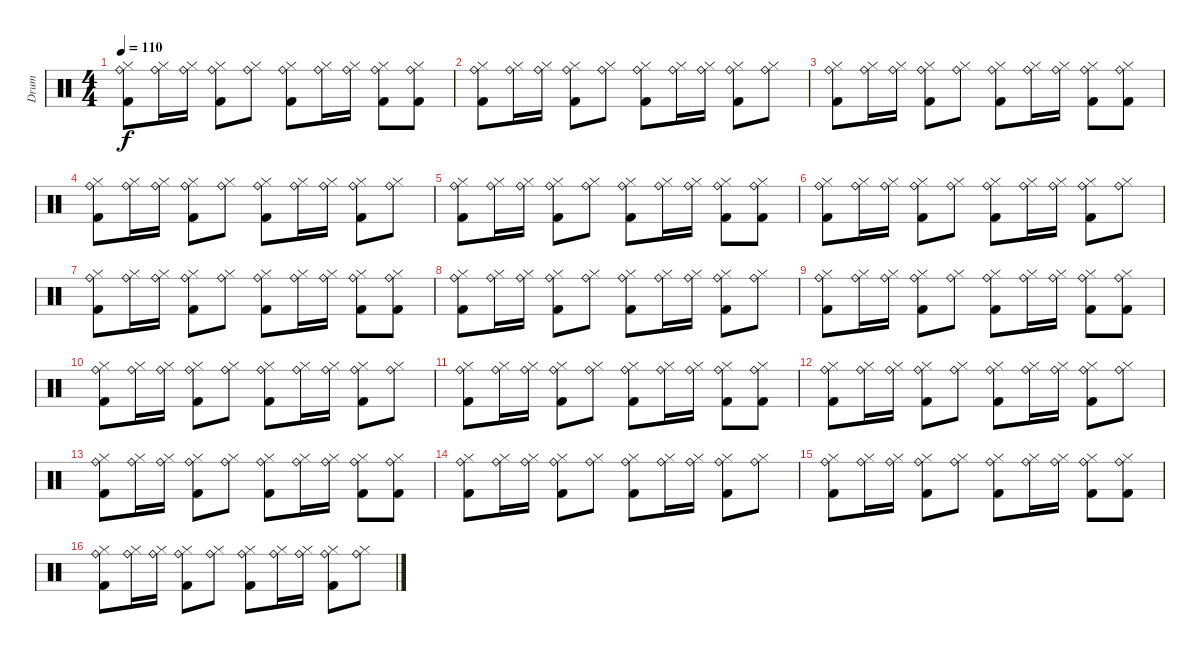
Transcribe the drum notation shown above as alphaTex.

\track ("Drum" "Drum") {instrument percussion}
\staff {score}
\articulation defaults
\ts (4 4)
\tempo 110
\clef neutral
\ks c
("Ride (bell)" "Hi-Hat (closed)" "Kick (hit) 2").8{dy f} ("Ride (bell)" "Hi-Hat (closed)").16 ("Ride (bell)" "Hi-Hat (closed)").16 ("Ride (bell)" "Hi-Hat (closed)" "Kick (hit) 2").8 ("Ride (bell)" "Hi-Hat (closed)").8 ("Ride (bell)" "Hi-Hat (closed)" "Kick (hit) 2").8 ("Ride (bell)" "Hi-Hat (closed)").16 ("Ride (bell)" "Hi-Hat (closed)").16 ("Ride (bell)" "Hi-Hat (closed)" "Kick (hit) 2").8 ("Ride (bell)" "Hi-Hat (closed)" "Kick (hit) 2").8 |
("Ride (bell)" "Hi-Hat (closed)" "Kick (hit) 2").8 ("Ride (bell)" "Hi-Hat (closed)").16 ("Ride (bell)" "Hi-Hat (closed)").16 ("Ride (bell)" "Hi-Hat (closed)" "Kick (hit) 2").8 ("Ride (bell)" "Hi-Hat (closed)").8 ("Ride (bell)" "Hi-Hat (closed)" "Kick (hit) 2").8 ("Ride (bell)" "Hi-Hat (closed)").16 ("Ride (bell)" "Hi-Hat (closed)").16 ("Ride (bell)" "Hi-Hat (closed)" "Kick (hit) 2").8 ("Ride (bell)" "Hi-Hat (closed)").8 |
("Ride (bell)" "Hi-Hat (closed)" "Kick (hit) 2").8 ("Ride (bell)" "Hi-Hat (closed)").16 ("Ride (bell)" "Hi-Hat (closed)").16 ("Ride (bell)" "Hi-Hat (closed)" "Kick (hit) 2").8 ("Ride (bell)" "Hi-Hat (closed)").8 ("Ride (bell)" "Hi-Hat (closed)" "Kick (hit) 2").8 ("Ride (bell)" "Hi-Hat (closed)").16 ("Ride (bell)" "Hi-Hat (closed)").16 ("Ride (bell)" "Hi-Hat (closed)" "Kick (hit) 2").8 ("Ride (bell)" "Hi-Hat (closed)" "Kick (hit) 2").8 |
("Ride (bell)" "Hi-Hat (closed)" "Kick (hit) 2").8 ("Ride (bell)" "Hi-Hat (closed)").16 ("Ride (bell)" "Hi-Hat (closed)").16 ("Ride (bell)" "Hi-Hat (closed)" "Kick (hit) 2").8 ("Ride (bell)" "Hi-Hat (closed)").8 ("Ride (bell)" "Hi-Hat (closed)" "Kick (hit) 2").8 ("Ride (bell)" "Hi-Hat (closed)").16 ("Ride (bell)" "Hi-Hat (closed)").16 ("Ride (bell)" "Hi-Hat (closed)" "Kick (hit) 2").8 ("Ride (bell)" "Hi-Hat (closed)").8 |
("Ride (bell)" "Hi-Hat (closed)" "Kick (hit) 2").8 ("Ride (bell)" "Hi-Hat (closed)").16 ("Ride (bell)" "Hi-Hat (closed)").16 ("Ride (bell)" "Hi-Hat (closed)" "Kick (hit) 2").8 ("Ride (bell)" "Hi-Hat (closed)").8 ("Ride (bell)" "Hi-Hat (closed)" "Kick (hit) 2").8 ("Ride (bell)" "Hi-Hat (closed)").16 ("Ride (bell)" "Hi-Hat (closed)").16 ("Ride (bell)" "Hi-Hat (closed)" "Kick (hit) 2").8 ("Ride (bell)" "Hi-Hat (closed)" "Kick (hit) 2").8 |
("Ride (bell)" "Hi-Hat (closed)" "Kick (hit) 2").8 ("Ride (bell)" "Hi-Hat (closed)").16 ("Ride (bell)" "Hi-Hat (closed)").16 ("Ride (bell)" "Hi-Hat (closed)" "Kick (hit) 2").8 ("Ride (bell)" "Hi-Hat (closed)").8 ("Ride (bell)" "Hi-Hat (closed)" "Kick (hit) 2").8 ("Ride (bell)" "Hi-Hat (closed)").16 ("Ride (bell)" "Hi-Hat (closed)").16 ("Ride (bell)" "Hi-Hat (closed)" "Kick (hit) 2").8 ("Ride (bell)" "Hi-Hat (closed)").8 |
("Ride (bell)" "Hi-Hat (closed)" "Kick (hit) 2").8 ("Ride (bell)" "Hi-Hat (closed)").16 ("Ride (bell)" "Hi-Hat (closed)").16 ("Ride (bell)" "Hi-Hat (closed)" "Kick (hit) 2").8 ("Ride (bell)" "Hi-Hat (closed)").8 ("Ride (bell)" "Hi-Hat (closed)" "Kick (hit) 2").8 ("Ride (bell)" "Hi-Hat (closed)").16 ("Ride (bell)" "Hi-Hat (closed)").16 ("Ride (bell)" "Hi-Hat (closed)" "Kick (hit) 2").8 ("Ride (bell)" "Hi-Hat (closed)" "Kick (hit) 2").8 |
("Ride (bell)" "Hi-Hat (closed)" "Kick (hit) 2").8 ("Ride (bell)" "Hi-Hat (closed)").16 ("Ride (bell)" "Hi-Hat (closed)").16 ("Ride (bell)" "Hi-Hat (closed)" "Kick (hit) 2").8 ("Ride (bell)" "Hi-Hat (closed)").8 ("Ride (bell)" "Hi-Hat (closed)" "Kick (hit) 2").8 ("Ride (bell)" "Hi-Hat (closed)").16 ("Ride (bell)" "Hi-Hat (closed)").16 ("Ride (bell)" "Hi-Hat (closed)" "Kick (hit) 2").8 ("Ride (bell)" "Hi-Hat (closed)").8 |
("Ride (bell)" "Hi-Hat (closed)" "Kick (hit) 2").8 ("Ride (bell)" "Hi-Hat (closed)").16 ("Ride (bell)" "Hi-Hat (closed)").16 ("Ride (bell)" "Hi-Hat (closed)" "Kick (hit) 2").8 ("Ride (bell)" "Hi-Hat (closed)").8 ("Ride (bell)" "Hi-Hat (closed)" "Kick (hit) 2").8 ("Ride (bell)" "Hi-Hat (closed)").16 ("Ride (bell)" "Hi-Hat (closed)").16 ("Ride (bell)" "Hi-Hat (closed)" "Kick (hit) 2").8 ("Ride (bell)" "Hi-Hat (closed)" "Kick (hit) 2").8 |
("Ride (bell)" "Hi-Hat (closed)" "Kick (hit) 2").8 ("Ride (bell)" "Hi-Hat (closed)").16 ("Ride (bell)" "Hi-Hat (closed)").16 ("Ride (bell)" "Hi-Hat (closed)" "Kick (hit) 2").8 ("Ride (bell)" "Hi-Hat (closed)").8 ("Ride (bell)" "Hi-Hat (closed)" "Kick (hit) 2").8 ("Ride (bell)" "Hi-Hat (closed)").16 ("Ride (bell)" "Hi-Hat (closed)").16 ("Ride (bell)" "Hi-Hat (closed)" "Kick (hit) 2").8 ("Ride (bell)" "Hi-Hat (closed)").8 |
("Ride (bell)" "Hi-Hat (closed)" "Kick (hit) 2").8 ("Ride (bell)" "Hi-Hat (closed)").16 ("Ride (bell)" "Hi-Hat (closed)").16 ("Ride (bell)" "Hi-Hat (closed)" "Kick (hit) 2").8 ("Ride (bell)" "Hi-Hat (closed)").8 ("Ride (bell)" "Hi-Hat (closed)" "Kick (hit) 2").8 ("Ride (bell)" "Hi-Hat (closed)").16 ("Ride (bell)" "Hi-Hat (closed)").16 ("Ride (bell)" "Hi-Hat (closed)" "Kick (hit) 2").8 ("Ride (bell)" "Hi-Hat (closed)" "Kick (hit) 2").8 |
("Ride (bell)" "Hi-Hat (closed)" "Kick (hit) 2").8 ("Ride (bell)" "Hi-Hat (closed)").16 ("Ride (bell)" "Hi-Hat (closed)").16 ("Ride (bell)" "Hi-Hat (closed)" "Kick (hit) 2").8 ("Ride (bell)" "Hi-Hat (closed)").8 ("Ride (bell)" "Hi-Hat (closed)" "Kick (hit) 2").8 ("Ride (bell)" "Hi-Hat (closed)").16 ("Ride (bell)" "Hi-Hat (closed)").16 ("Ride (bell)" "Hi-Hat (closed)" "Kick (hit) 2").8 ("Ride (bell)" "Hi-Hat (closed)").8 |
("Ride (bell)" "Hi-Hat (closed)" "Kick (hit) 2").8 ("Ride (bell)" "Hi-Hat (closed)").16 ("Ride (bell)" "Hi-Hat (closed)").16 ("Ride (bell)" "Hi-Hat (closed)" "Kick (hit) 2").8 ("Ride (bell)" "Hi-Hat (closed)").8 ("Ride (bell)" "Hi-Hat (closed)" "Kick (hit) 2").8 ("Ride (bell)" "Hi-Hat (closed)").16 ("Ride (bell)" "Hi-Hat (closed)").16 ("Ride (bell)" "Hi-Hat (closed)" "Kick (hit) 2").8 ("Ride (bell)" "Hi-Hat (closed)" "Kick (hit) 2").8 |
("Ride (bell)" "Hi-Hat (closed)" "Kick (hit) 2").8 ("Ride (bell)" "Hi-Hat (closed)").16 ("Ride (bell)" "Hi-Hat (closed)").16 ("Ride (bell)" "Hi-Hat (closed)" "Kick (hit) 2").8 ("Ride (bell)" "Hi-Hat (closed)").8 ("Ride (bell)" "Hi-Hat (closed)" "Kick (hit) 2").8 ("Ride (bell)" "Hi-Hat (closed)").16 ("Ride (bell)" "Hi-Hat (closed)").16 ("Ride (bell)" "Hi-Hat (closed)" "Kick (hit) 2").8 ("Ride (bell)" "Hi-Hat (closed)").8 |
("Ride (bell)" "Hi-Hat (closed)" "Kick (hit) 2").8 ("Ride (bell)" "Hi-Hat (closed)").16 ("Ride (bell)" "Hi-Hat (closed)").16 ("Ride (bell)" "Hi-Hat (closed)" "Kick (hit) 2").8 ("Ride (bell)" "Hi-Hat (closed)").8 ("Ride (bell)" "Hi-Hat (closed)" "Kick (hit) 2").8 ("Ride (bell)" "Hi-Hat (closed)").16 ("Ride (bell)" "Hi-Hat (closed)").16 ("Ride (bell)" "Hi-Hat (closed)" "Kick (hit) 2").8 ("Ride (bell)" "Hi-Hat (closed)" "Kick (hit) 2").8 |
("Ride (bell)" "Hi-Hat (closed)" "Kick (hit) 2").8 ("Ride (bell)" "Hi-Hat (closed)").16 ("Ride (bell)" "Hi-Hat (closed)").16 ("Ride (bell)" "Hi-Hat (closed)" "Kick (hit) 2").8 ("Ride (bell)" "Hi-Hat (closed)").8 ("Ride (bell)" "Hi-Hat (closed)" "Kick (hit) 2").8 ("Ride (bell)" "Hi-Hat (closed)").16 ("Ride (bell)" "Hi-Hat (closed)").16 ("Ride (bell)" "Hi-Hat (closed)" "Kick (hit) 2").8 ("Ride (bell)" "Hi-Hat (closed)").8
